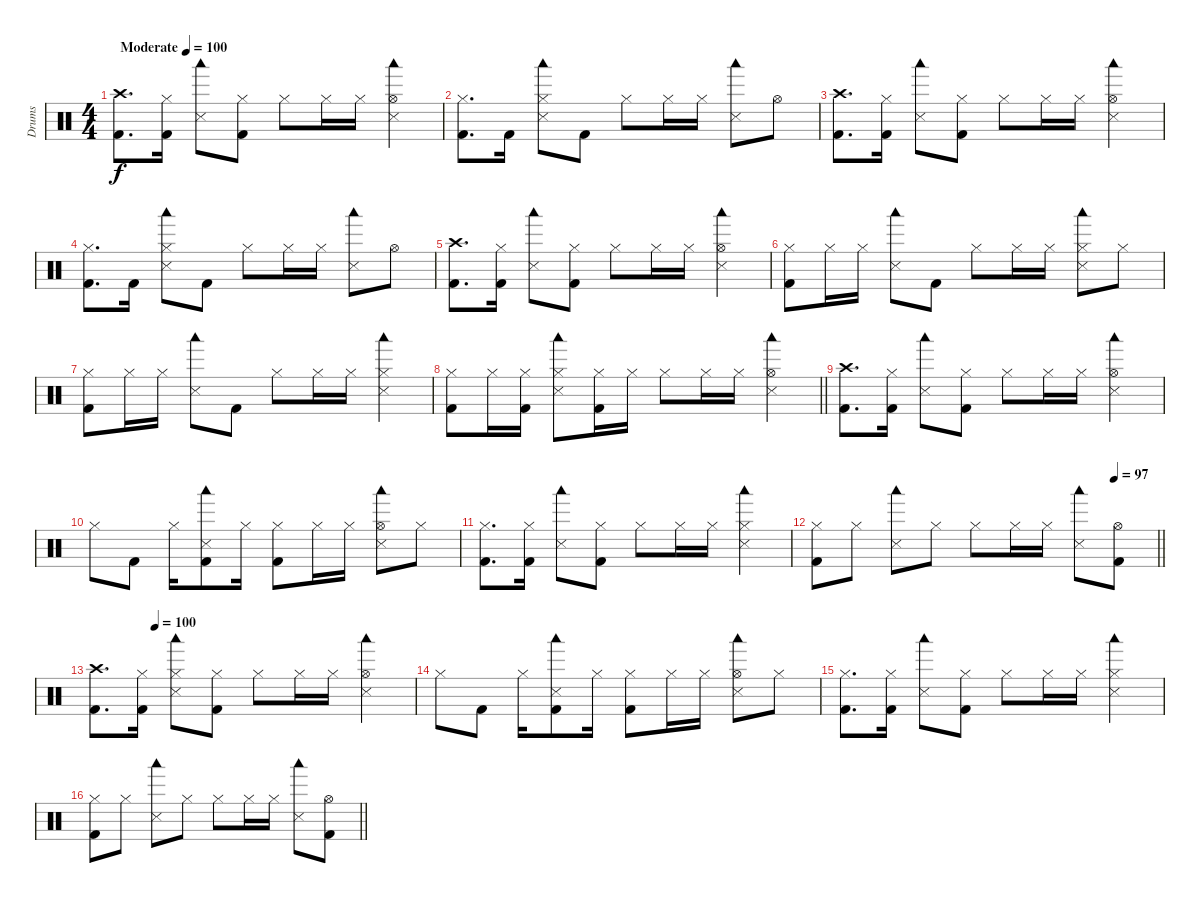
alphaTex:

\track ("Drums" "Drums") {instrument percussion}
\staff {score}
\articulation defaults
\ts (4 4)
\tempo (100 "Moderate")
\clef neutral
\ks c
("Crash high (hit)" "Kick (hit) 2").8{d dy f} ("Hi-Hat (closed)" "Kick (hit) 2").16 ("Snare (side stick) 3" "Woodblock low (hit)").8 ("Hi-Hat (closed)" "Kick (hit) 2").8 "Hi-Hat (closed)".8 "Hi-Hat (closed)".16 "Hi-Hat (closed)".16 ("Hi-Hat (open)" "Snare (side stick) 3" "Woodblock low (hit)").4 |
("Hi-Hat (closed)" "Kick (hit) 2").8{d} "Kick (hit) 2".16 ("Hi-Hat (closed)" "Woodblock low (hit)" "Snare (side stick) 3").8 "Kick (hit) 2".8 "Hi-Hat (closed)".8 "Hi-Hat (closed)".16 "Hi-Hat (closed)".16 ("Woodblock low (hit)" "Snare (side stick) 3").8 "Hi-Hat (open)".8 |
("Crash high (hit)" "Kick (hit) 2").8{d} ("Hi-Hat (closed)" "Kick (hit) 2").16 ("Woodblock low (hit)" "Snare (side stick) 3").8 ("Hi-Hat (closed)" "Kick (hit) 2").8 "Hi-Hat (closed)".8 "Hi-Hat (closed)".16 "Hi-Hat (closed)".16 ("Hi-Hat (open)" "Woodblock low (hit)" "Snare (side stick) 3").4 |
("Hi-Hat (closed)" "Kick (hit) 2").8{d} "Kick (hit) 2".16 ("Hi-Hat (closed)" "Woodblock low (hit)" "Snare (side stick) 3").8 "Kick (hit) 2".8 "Hi-Hat (closed)".8 "Hi-Hat (closed)".16 "Hi-Hat (closed)".16 ("Woodblock low (hit)" "Snare (side stick) 3").8 "Hi-Hat (open)".8 |
("Crash high (hit)" "Kick (hit) 2").8{d} ("Hi-Hat (closed)" "Kick (hit) 2").16 ("Woodblock low (hit)" "Snare (side stick) 3").8 ("Hi-Hat (closed)" "Kick (hit) 2").8 "Hi-Hat (closed)".8 "Hi-Hat (closed)".16 "Hi-Hat (closed)".16 ("Hi-Hat (open)" "Woodblock low (hit)" "Snare (side stick) 3").4 |
("Hi-Hat (closed)" "Kick (hit) 2").8 "Hi-Hat (closed)".16 "Hi-Hat (closed)".16 ("Woodblock low (hit)" "Snare (side stick) 3").8 "Kick (hit) 2".8 "Hi-Hat (closed)".8 "Hi-Hat (closed)".16 "Hi-Hat (closed)".16 ("Hi-Hat (closed)" "Woodblock low (hit)" "Snare (side stick) 3").8 "Hi-Hat (closed)".8 |
("Hi-Hat (closed)" "Kick (hit) 2").8 "Hi-Hat (closed)".16 "Hi-Hat (closed)".16 ("Woodblock low (hit)" "Snare (side stick) 3").8 "Kick (hit) 2".8 "Hi-Hat (closed)".8 "Hi-Hat (closed)".16 "Hi-Hat (closed)".16 ("Hi-Hat (closed)" "Woodblock low (hit)" "Snare (side stick) 3").4 |
\barLineRight lightlight
("Hi-Hat (closed)" "Kick (hit) 2").8 "Hi-Hat (closed)".16 ("Hi-Hat (closed)" "Kick (hit) 2").16 ("Hi-Hat (closed)" "Woodblock low (hit)" "Snare (side stick) 3").8 ("Hi-Hat (closed)" "Kick (hit) 2").16 "Hi-Hat (closed)".16 "Hi-Hat (closed)".8 "Hi-Hat (closed)".16 "Hi-Hat (closed)".16 ("Hi-Hat (open)" "Woodblock low (hit)" "Snare (side stick) 3").4 |
("Crash high (hit)" "Kick (hit) 2").8{d} ("Hi-Hat (closed)" "Kick (hit) 2").16 ("Woodblock low (hit)" "Snare (side stick) 3").8 ("Hi-Hat (closed)" "Kick (hit) 2").8 "Hi-Hat (closed)".8 "Hi-Hat (closed)".16 "Hi-Hat (closed)".16 ("Hi-Hat (open)" "Woodblock low (hit)" "Snare (side stick) 3").4 |
"Hi-Hat (closed)".8 "Kick (hit) 2".8 "Hi-Hat (closed)".16 ("Woodblock low (hit)" "Snare (side stick) 3" "Kick (hit) 2").8 "Hi-Hat (closed)".16 ("Hi-Hat (closed)" "Kick (hit) 2").8 "Hi-Hat (closed)".16 "Hi-Hat (closed)".16 ("Hi-Hat (open)" "Woodblock low (hit)" "Snare (side stick) 3").8 "Hi-Hat (closed)".8 |
("Hi-Hat (closed)" "Kick (hit) 2").8{d} ("Hi-Hat (closed)" "Kick (hit) 2").16 ("Woodblock low (hit)" "Snare (side stick) 3").8 ("Hi-Hat (closed)" "Kick (hit) 2").8 "Hi-Hat (closed)".8 "Hi-Hat (closed)".16 "Hi-Hat (closed)".16 ("Hi-Hat (closed)" "Woodblock low (hit)" "Snare (side stick) 3").4 |
\tempo (97 0.875)
\barLineRight lightlight
("Hi-Hat (closed)" "Kick (hit) 2").8 "Hi-Hat (closed)".8 ("Woodblock low (hit)" "Snare (side stick) 3").8 "Hi-Hat (closed)".8 "Hi-Hat (closed)".8 "Hi-Hat (closed)".16 "Hi-Hat (closed)".16 ("Woodblock low (hit)" "Snare (side stick) 3").8 ("Hi-Hat (open)" "Kick (hit) 2").8 |
\tempo (100 0.1875)
("Crash high (hit)" "Kick (hit) 2").8{d} ("Hi-Hat (closed)" "Kick (hit) 2").16 ("Hi-Hat (closed)" "Woodblock low (hit)" "Snare (side stick) 3").8 ("Hi-Hat (closed)" "Kick (hit) 2").8 "Hi-Hat (closed)".8 "Hi-Hat (closed)".16 "Hi-Hat (closed)".16 ("Hi-Hat (open)" "Woodblock low (hit)" "Snare (side stick) 3").4 |
"Hi-Hat (closed)".8 "Kick (hit) 2".8 "Hi-Hat (closed)".16 ("Woodblock low (hit)" "Snare (side stick) 3" "Kick (hit) 2").8 "Hi-Hat (closed)".16 ("Hi-Hat (closed)" "Kick (hit) 2").8 "Hi-Hat (closed)".16 "Hi-Hat (closed)".16 ("Hi-Hat (open)" "Woodblock low (hit)" "Snare (side stick) 3").8 "Hi-Hat (closed)".8 |
("Hi-Hat (closed)" "Kick (hit) 2").8{d} ("Hi-Hat (closed)" "Kick (hit) 2").16 ("Woodblock low (hit)" "Snare (side stick) 3").8 ("Hi-Hat (closed)" "Kick (hit) 2").8 "Hi-Hat (closed)".8 "Hi-Hat (closed)".16 "Hi-Hat (closed)".16 ("Hi-Hat (closed)" "Woodblock low (hit)" "Snare (side stick) 3").4 |
\barLineRight lightlight
("Hi-Hat (closed)" "Kick (hit) 2").8 "Hi-Hat (closed)".8 ("Woodblock low (hit)" "Snare (side stick) 3").8 "Hi-Hat (closed)".8 "Hi-Hat (closed)".8 "Hi-Hat (closed)".16 "Hi-Hat (closed)".16 ("Woodblock low (hit)" "Snare (side stick) 3").8 ("Hi-Hat (open)" "Kick (hit) 2").8
